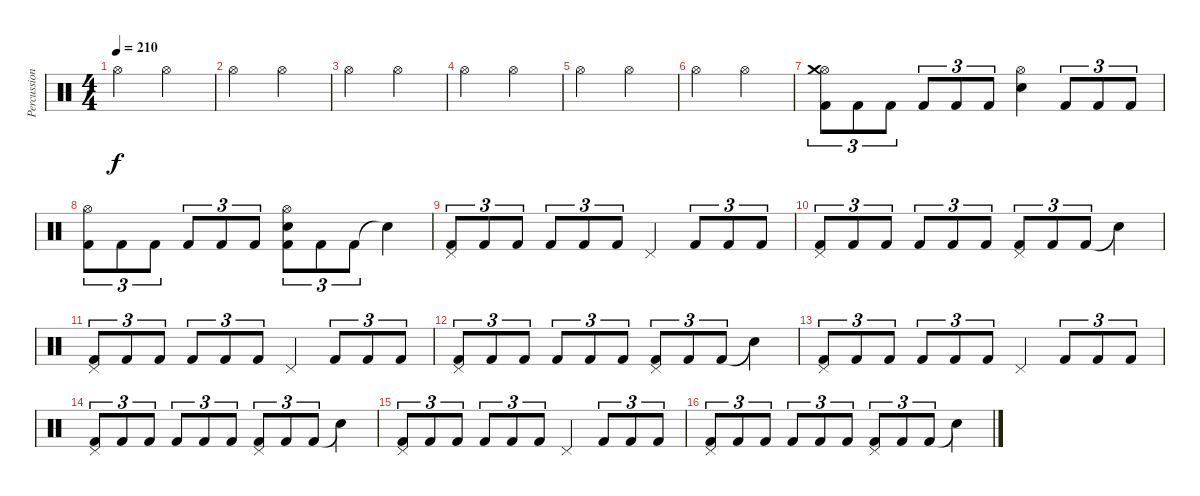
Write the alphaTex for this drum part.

\track ("Percussion" "Percussion") {instrument percussion}
\staff {score}
\articulation defaults
\ts (4 4)
\tempo 210
\clef neutral
\ks c "Hi-Hat (open)".2{dy f} "Hi-Hat (open)".2
|
"Hi-Hat (open)".2 "Hi-Hat (open)".2 |
"Hi-Hat (open)".2 "Hi-Hat (open)".2 |
"Hi-Hat (open)".2 "Hi-Hat (open)".2 |
"Hi-Hat (open)".2 "Hi-Hat (open)".2 |
"Hi-Hat (open)".2 "Hi-Hat (open)".2 |
("Hi-Hat (open)" "Crash medium (hit)" "Kick (hit) 2").8{tu (3 2)} "Kick (hit) 2".8{tu (3 2)} "Kick (hit) 2".8{tu (3 2)} "Kick (hit) 2".8{tu (3 2)} "Kick (hit) 2".8{tu (3 2)} "Kick (hit) 2".8{tu (3 2)} ("Hi-Hat (open)" "Electric Snare (hit)").4 "Kick (hit) 2".8{tu (3 2)} "Kick (hit) 2".8{tu (3 2)} "Kick (hit) 2".8{tu (3 2)} |
("Hi-Hat (open)" "Kick (hit) 2").8{tu (3 2)} "Kick (hit) 2".8{tu (3 2)} "Kick (hit) 2".8{tu (3 2)} "Kick (hit) 2".8{tu (3 2)} "Kick (hit) 2".8{tu (3 2)} "Kick (hit) 2".8{tu (3 2)} ("Hi-Hat (open)" "Electric Snare (hit)" "Kick (hit) 2").8{tu (3 2)} "Kick (hit) 2".8{tu (3 2)} "Kick (hit) 2".8{tu (3 2)} "Snare (hit)"{t}.4 |
("Pedal Hi-Hat (hit)" "Kick (hit) 2").8{tu (3 2)} "Kick (hit) 2".8{tu (3 2)} "Kick (hit) 2".8{tu (3 2)} "Kick (hit) 2".8{tu (3 2)} "Kick (hit) 2".8{tu (3 2)} "Kick (hit) 2".8{tu (3 2)} "Pedal Hi-Hat (hit)".4 "Kick (hit) 2".8{tu (3 2)} "Kick (hit) 2".8{tu (3 2)} "Kick (hit) 2".8{tu (3 2)} |
("Pedal Hi-Hat (hit)" "Kick (hit) 2").8{tu (3 2)} "Kick (hit) 2".8{tu (3 2)} "Kick (hit) 2".8{tu (3 2)} "Kick (hit) 2".8{tu (3 2)} "Kick (hit) 2".8{tu (3 2)} "Kick (hit) 2".8{tu (3 2)} ("Pedal Hi-Hat (hit)" "Kick (hit) 2").8{tu (3 2)} "Kick (hit) 2".8{tu (3 2)} "Kick (hit) 2".8{tu (3 2)} "Snare (hit)"{t}.4 |
("Pedal Hi-Hat (hit)" "Kick (hit) 2").8{tu (3 2)} "Kick (hit) 2".8{tu (3 2)} "Kick (hit) 2".8{tu (3 2)} "Kick (hit) 2".8{tu (3 2)} "Kick (hit) 2".8{tu (3 2)} "Kick (hit) 2".8{tu (3 2)} "Pedal Hi-Hat (hit)".4 "Kick (hit) 2".8{tu (3 2)} "Kick (hit) 2".8{tu (3 2)} "Kick (hit) 2".8{tu (3 2)} |
("Pedal Hi-Hat (hit)" "Kick (hit) 2").8{tu (3 2)} "Kick (hit) 2".8{tu (3 2)} "Kick (hit) 2".8{tu (3 2)} "Kick (hit) 2".8{tu (3 2)} "Kick (hit) 2".8{tu (3 2)} "Kick (hit) 2".8{tu (3 2)} ("Pedal Hi-Hat (hit)" "Kick (hit) 2").8{tu (3 2)} "Kick (hit) 2".8{tu (3 2)} "Kick (hit) 2".8{tu (3 2)} "Snare (hit)"{t}.4 |
("Pedal Hi-Hat (hit)" "Kick (hit) 2").8{tu (3 2)} "Kick (hit) 2".8{tu (3 2)} "Kick (hit) 2".8{tu (3 2)} "Kick (hit) 2".8{tu (3 2)} "Kick (hit) 2".8{tu (3 2)} "Kick (hit) 2".8{tu (3 2)} "Pedal Hi-Hat (hit)".4 "Kick (hit) 2".8{tu (3 2)} "Kick (hit) 2".8{tu (3 2)} "Kick (hit) 2".8{tu (3 2)} |
("Pedal Hi-Hat (hit)" "Kick (hit) 2").8{tu (3 2)} "Kick (hit) 2".8{tu (3 2)} "Kick (hit) 2".8{tu (3 2)} "Kick (hit) 2".8{tu (3 2)} "Kick (hit) 2".8{tu (3 2)} "Kick (hit) 2".8{tu (3 2)} ("Pedal Hi-Hat (hit)" "Kick (hit) 2").8{tu (3 2)} "Kick (hit) 2".8{tu (3 2)} "Kick (hit) 2".8{tu (3 2)} "Snare (hit)"{t}.4 |
("Pedal Hi-Hat (hit)" "Kick (hit) 2").8{tu (3 2)} "Kick (hit) 2".8{tu (3 2)} "Kick (hit) 2".8{tu (3 2)} "Kick (hit) 2".8{tu (3 2)} "Kick (hit) 2".8{tu (3 2)} "Kick (hit) 2".8{tu (3 2)} "Pedal Hi-Hat (hit)".4 "Kick (hit) 2".8{tu (3 2)} "Kick (hit) 2".8{tu (3 2)} "Kick (hit) 2".8{tu (3 2)} |
("Pedal Hi-Hat (hit)" "Kick (hit) 2").8{tu (3 2)} "Kick (hit) 2".8{tu (3 2)} "Kick (hit) 2".8{tu (3 2)} "Kick (hit) 2".8{tu (3 2)} "Kick (hit) 2".8{tu (3 2)} "Kick (hit) 2".8{tu (3 2)} ("Pedal Hi-Hat (hit)" "Kick (hit) 2").8{tu (3 2)} "Kick (hit) 2".8{tu (3 2)} "Kick (hit) 2".8{tu (3 2)} "Snare (hit)"{t}.4
